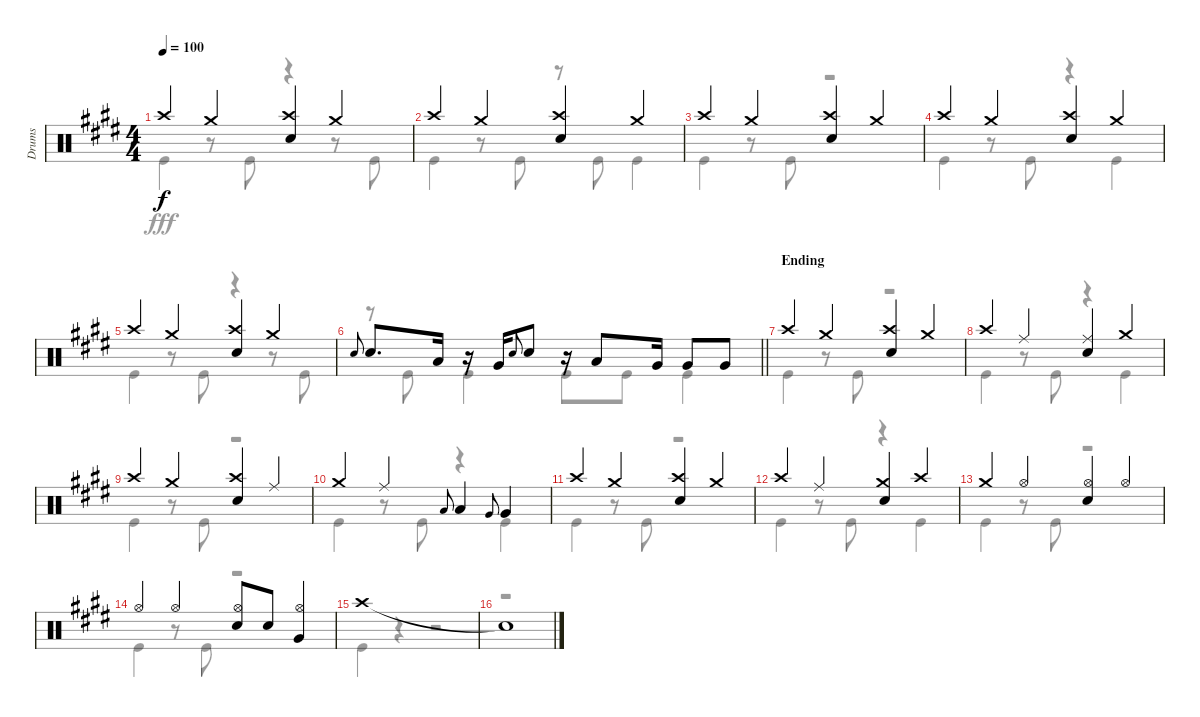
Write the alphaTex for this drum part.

\track ("Drums" "Drums") {instrument percussion}
\staff {score}
\articulation defaults
\voice
\ts (4 4)
\tempo 100
\clef neutral
\ks e "Crash high (hit)".4{dy f} "Crash medium (hit)".4
("Crash high (hit)" "Snare (hit) 2").4 "Crash medium (hit)".4 |
"Crash high (hit)".4 "Crash medium (hit)".4 ("Crash high (hit)" "Snare (hit) 2").4 "Crash medium (hit)".4 |
"Crash high (hit)".4 "Crash medium (hit)".4 ("Crash high (hit)" "Snare (hit) 2").4 "Crash medium (hit)".4 |
"Crash high (hit)".4 "Crash medium (hit)".4 ("Crash high (hit)" "Snare (hit) 2").4 "Crash medium (hit)".4 |
"Crash high (hit)".4 "Crash medium (hit)".4 ("Crash high (hit)" "Snare (hit) 2").4 "Crash medium (hit)".4 |
\barLineRight lightlight "Snare (hit) 2".8{gr onbeat} "Snare (hit) 2".8{d} "Low Tom (hit)".16
r.16 "Very Low Tom (hit)".16 "Snare (hit) 2".8{gr onbeat} "Snare (hit) 2".8 r.16 "Low Tom (hit)".8 "Very Low Tom (hit)".16 "Very Low Tom (hit)".8 "Very Low Tom (hit)".8 |
\section ("" "Ending")
"Crash high (hit)".4 "Crash medium (hit)".4 ("Crash high (hit)" "Snare (hit) 2").4 "Crash medium (hit)".4 |
"Crash high (hit)".4 "Ride (middle)".4 ("Ride (middle)" "Snare (hit) 2").4 "Crash medium (hit)".4 |
"Crash high (hit)".4 "Crash medium (hit)".4 ("Crash high (hit)" "Snare (hit) 2").4 "Ride (middle)".4 |
"Crash medium (hit)".4 "Ride (middle)".4 "Low Tom (hit)".8{gr onbeat} "Low Tom (hit)".4 "Very Low Tom (hit)".8{gr onbeat} "Very Low Tom (hit)".4 |
"Crash high (hit)".4 "Crash medium (hit)".4 ("Crash high (hit)" "Snare (hit) 2").4 "Crash medium (hit)".4 |
"Crash high (hit)".4 "Ride (middle)".4 ("Crash medium (hit)" "Snare (hit) 2").4 "Crash high (hit)".4 |
"Crash medium (hit)".4 "Hi-Hat (open)".4 ("Hi-Hat (open)" "Snare (hit) 2").4 "Hi-Hat (open)".4 |
"Hi-Hat (open)".4 "Hi-Hat (open)".4 ("Hi-Hat (open)" "Snare (hit) 2").8 "Snare (hit) 2".8 ("Hi-Hat (open)" "Very Low Tom (hit)").4 |
"Crash high (hit)".1 |
"Snare (hit)"{t}.1
\voice
\clef neutral
\ottava regular
\simile none
\ks e "Kick (hit)".4{dy fff}
r.8 "Kick (hit)".8 r.4 r.8 "Kick (hit)".8 |
"Kick (hit)".4 r.8 "Kick (hit)".8 r.8 "Kick (hit)".8 "Kick (hit)".4 |
"Kick (hit)".4 r.8 "Kick (hit)".8 r.2 |
"Kick (hit)".4 r.8 "Kick (hit)".8 r.4 "Kick (hit)".4 |
"Kick (hit)".4 r.8 "Kick (hit)".8 r.4 r.8 "Kick (hit)".8 |
\barLineRight lightlight
r.8 "Kick (hit)".8 "Kick (hit)".4 "Kick (hit)".8 "Kick (hit)".8 "Kick (hit)".4 |
"Kick (hit)".4 r.8 "Kick (hit)".8 r.2 |
"Kick (hit)".4 r.8 "Kick (hit)".8 r.4 "Kick (hit)".4 |
"Kick (hit)".4 r.8 "Kick (hit)".8 r.2 |
"Kick (hit)".4 r.8 "Kick (hit)".8 r.4 "Kick (hit)".4 |
"Kick (hit)".4 r.8 "Kick (hit)".8 r.2 |
"Kick (hit)".4 r.8 "Kick (hit)".8 r.4 "Kick (hit)".4 |
"Kick (hit)".4 r.8 "Kick (hit)".8 r.2 |
"Kick (hit)".4 r.8 "Kick (hit)".8 r.2 |
"Kick (hit)".4 r.4 r.2 |
r.1
